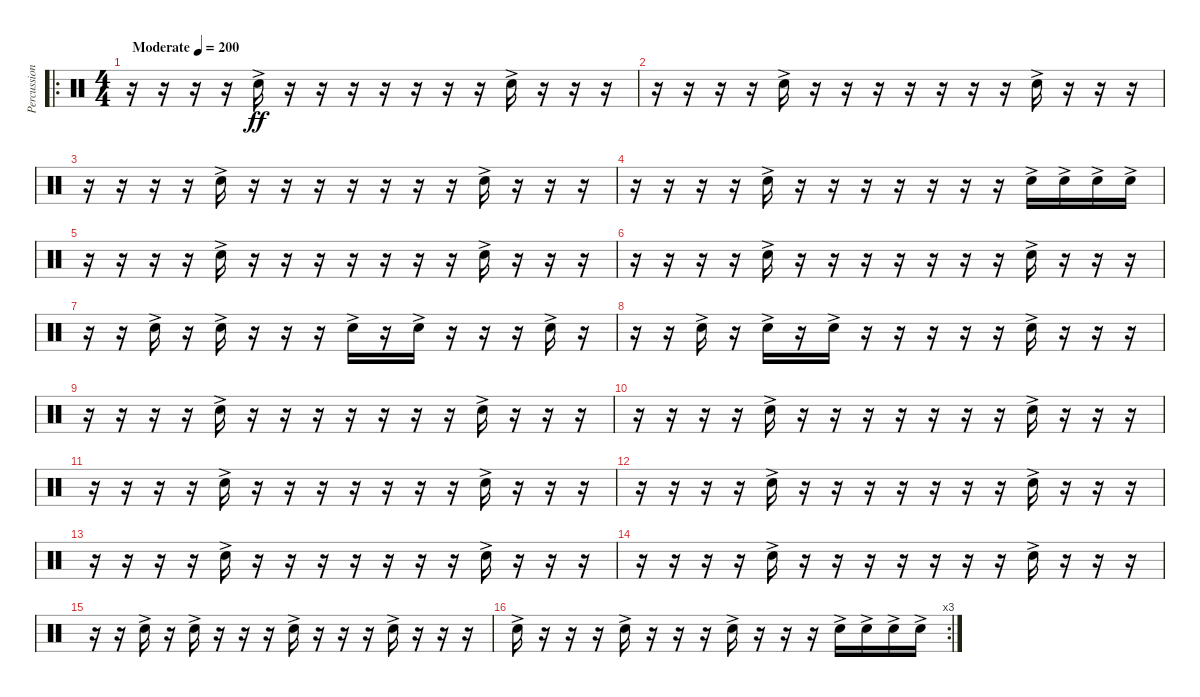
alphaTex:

\track ("Percussion" "Percussion") {instrument percussion bank 255}
\staff {score}
\articulation defaults
\ro
\ts (4 4)
\tempo (200 "Moderate")
\clef neutral
\ks c
r.16{dy ff} r.16 r.16 r.16 "Snare (hit) 2"{ac}.16 r.16 r.16 r.16 r.16 r.16 r.16 r.16 "Snare (hit) 2"{ac}.16 r.16 r.16 r.16 |
r.16 r.16 r.16 r.16 "Snare (hit) 2"{ac}.16 r.16 r.16 r.16 r.16 r.16 r.16 r.16 "Snare (hit) 2"{ac}.16 r.16 r.16 r.16 |
r.16 r.16 r.16 r.16 "Snare (hit) 2"{ac}.16 r.16 r.16 r.16 r.16 r.16 r.16 r.16 "Snare (hit) 2"{ac}.16 r.16 r.16 r.16 |
r.16 r.16 r.16 r.16 "Snare (hit) 2"{ac}.16 r.16 r.16 r.16 r.16 r.16 r.16 r.16 "Snare (hit) 2"{ac}.16 "Snare (hit) 2"{ac}.16 "Snare (hit) 2"{ac}.16 "Snare (hit) 2"{ac}.16 |
r.16 r.16 r.16 r.16 "Snare (hit) 2"{ac}.16 r.16 r.16 r.16 r.16 r.16 r.16 r.16 "Snare (hit) 2"{ac}.16 r.16 r.16 r.16 |
r.16 r.16 r.16 r.16 "Snare (hit) 2"{ac}.16 r.16 r.16 r.16 r.16 r.16 r.16 r.16 "Snare (hit) 2"{ac}.16 r.16 r.16 r.16 |
r.16 r.16 "Snare (hit) 2"{ac}.16 r.16 "Snare (hit) 2"{ac}.16 r.16 r.16 r.16 "Snare (hit) 2"{ac}.16 r.16 "Snare (hit) 2"{ac}.16 r.16 r.16 r.16 "Snare (hit) 2"{ac}.16 r.16 |
r.16 r.16 "Snare (hit) 2"{ac}.16 r.16 "Snare (hit) 2"{ac}.16 r.16 "Snare (hit) 2"{ac}.16 r.16 r.16 r.16 r.16 r.16 "Snare (hit) 2"{ac}.16 r.16 r.16 r.16 |
r.16 r.16 r.16 r.16 "Snare (hit) 2"{ac}.16 r.16 r.16 r.16 r.16 r.16 r.16 r.16 "Snare (hit) 2"{ac}.16 r.16 r.16 r.16 |
r.16 r.16 r.16 r.16 "Snare (hit) 2"{ac}.16 r.16 r.16 r.16 r.16 r.16 r.16 r.16 "Snare (hit) 2"{ac}.16 r.16 r.16 r.16 |
r.16 r.16 r.16 r.16 "Snare (hit) 2"{ac}.16 r.16 r.16 r.16 r.16 r.16 r.16 r.16 "Snare (hit) 2"{ac}.16 r.16 r.16 r.16 |
r.16 r.16 r.16 r.16 "Snare (hit) 2"{ac}.16 r.16 r.16 r.16 r.16 r.16 r.16 r.16 "Snare (hit) 2"{ac}.16 r.16 r.16 r.16 |
r.16 r.16 r.16 r.16 "Snare (hit) 2"{ac}.16 r.16 r.16 r.16 r.16 r.16 r.16 r.16 "Snare (hit) 2"{ac}.16 r.16 r.16 r.16 |
r.16 r.16 r.16 r.16 "Snare (hit) 2"{ac}.16 r.16 r.16 r.16 r.16 r.16 r.16 r.16 "Snare (hit) 2"{ac}.16 r.16 r.16 r.16 |
r.16 r.16 "Snare (hit) 2"{ac}.16 r.16 "Snare (hit) 2"{ac}.16 r.16 r.16 r.16 "Snare (hit) 2"{ac}.16 r.16 r.16 r.16 "Snare (hit) 2"{ac}.16 r.16 r.16 r.16 |
\rc 3 "Snare (hit) 2"{ac}.16
r.16 r.16 r.16 "Snare (hit) 2"{ac}.16 r.16 r.16 r.16 "Snare (hit) 2"{ac}.16 r.16 r.16 r.16 "Snare (hit) 2"{ac}.16 "Snare (hit) 2"{ac}.16 "Snare (hit) 2"{ac}.16 "Snare (hit) 2"{ac}.16
